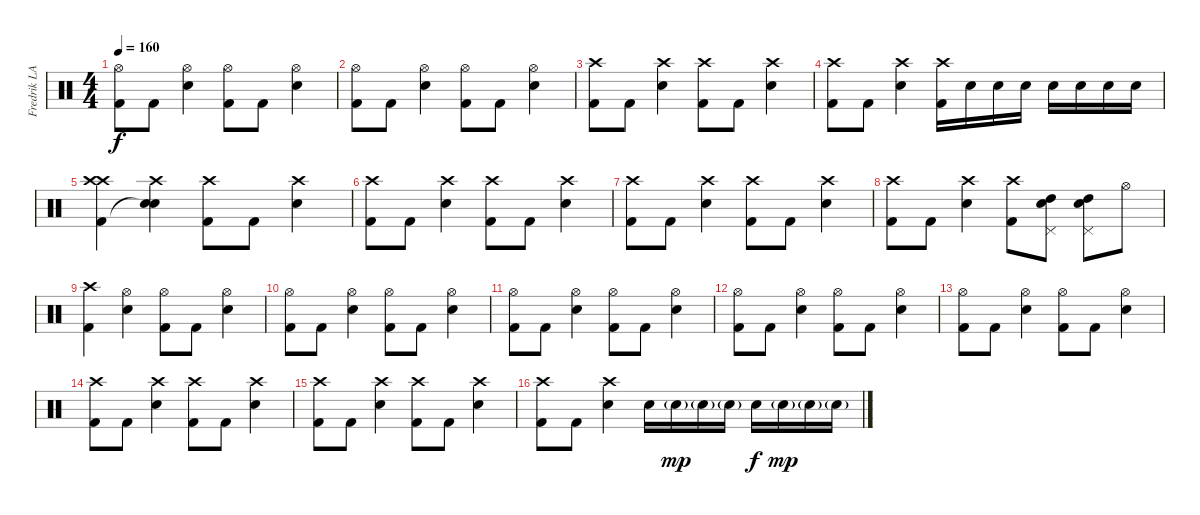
\track ("Fredrik LARZON" "Fredrik LA") {instrument percussion}
\staff {score}
\articulation defaults
\ts (4 4)
\tempo 160
\clef neutral
\ks c
("Hi-Hat (open)" "Kick (hit) 2").8{dy f} "Kick (hit) 2".8 ("Hi-Hat (open)" "Electric Snare (hit)").4 ("Hi-Hat (open)" "Kick (hit) 2").8 "Kick (hit) 2".8 ("Hi-Hat (open)" "Electric Snare (hit)").4 |
("Hi-Hat (open)" "Kick (hit) 2").8 "Kick (hit) 2".8 ("Hi-Hat (open)" "Electric Snare (hit)").4 ("Hi-Hat (open)" "Kick (hit) 2").8 "Kick (hit) 2".8 ("Hi-Hat (open)" "Electric Snare (hit)").4 |
("Crash high (hit)" "Kick (hit) 2").8 "Kick (hit) 2".8 ("Crash high (hit)" "Electric Snare (hit)").4 ("Crash high (hit)" "Kick (hit) 2").8 "Kick (hit) 2".8 ("Crash high (hit)" "Electric Snare (hit)").4 |
("Crash high (hit)" "Kick (hit) 2").8 "Kick (hit) 2".8 ("Crash high (hit)" "Electric Snare (hit)").4 ("Crash high (hit)" "Kick (hit) 2").16 "Electric Snare (hit)".16 "Electric Snare (hit)".16 "Electric Snare (hit)".16 "Electric Snare (hit)".16 "Electric Snare (hit)".16 "Electric Snare (hit)".16 "Electric Snare (hit)".16 |
("Crash high (hit)" "Crash high (hit)" "Kick (hit) 2").4 ("Crash high (hit)" "Electric Snare (hit)" "Snare (hit)"{t}).4 ("Crash high (hit)" "Kick (hit) 2").8 "Kick (hit) 2".8 ("Crash high (hit)" "Electric Snare (hit)").4 |
("Crash high (hit)" "Kick (hit) 2").8 "Kick (hit) 2".8 ("Crash high (hit)" "Electric Snare (hit)").4 ("Crash high (hit)" "Kick (hit) 2").8 "Kick (hit) 2".8 ("Crash high (hit)" "Electric Snare (hit)").4 |
("Crash high (hit)" "Kick (hit) 2").8 "Kick (hit) 2".8 ("Crash high (hit)" "Electric Snare (hit)").4 ("Crash high (hit)" "Kick (hit) 2").8 "Kick (hit) 2".8 ("Crash high (hit)" "Electric Snare (hit)").4 |
("Crash high (hit)" "Kick (hit) 2").8 "Kick (hit) 2".8 ("Crash high (hit)" "Electric Snare (hit)").4 ("Crash high (hit)" "Kick (hit) 2").8 ("Pedal Hi-Hat (hit)" "Electric Snare (hit)" "High Tom (hit)").8 ("Pedal Hi-Hat (hit)" "Electric Snare (hit)" "High Tom (hit)").8 "Hi-Hat (open)".8 |
("Crash high (hit)" "Kick (hit) 2").4 ("Hi-Hat (open)" "Electric Snare (hit)").4 ("Hi-Hat (open)" "Kick (hit) 2").8 "Kick (hit) 2".8 ("Hi-Hat (open)" "Electric Snare (hit)").4 |
("Hi-Hat (open)" "Kick (hit) 2").8 "Kick (hit) 2".8 ("Hi-Hat (open)" "Electric Snare (hit)").4 ("Hi-Hat (open)" "Kick (hit) 2").8 "Kick (hit) 2".8 ("Hi-Hat (open)" "Electric Snare (hit)").4 |
("Hi-Hat (open)" "Kick (hit) 2").8 "Kick (hit) 2".8 ("Hi-Hat (open)" "Electric Snare (hit)").4 ("Hi-Hat (open)" "Kick (hit) 2").8 "Kick (hit) 2".8 ("Hi-Hat (open)" "Electric Snare (hit)").4 |
("Hi-Hat (open)" "Kick (hit) 2").8 "Kick (hit) 2".8 ("Hi-Hat (open)" "Electric Snare (hit)").4 ("Hi-Hat (open)" "Kick (hit) 2").8 "Kick (hit) 2".8 ("Hi-Hat (open)" "Electric Snare (hit)").4 |
("Hi-Hat (open)" "Kick (hit) 2").8 "Kick (hit) 2".8 ("Hi-Hat (open)" "Electric Snare (hit)").4 ("Hi-Hat (open)" "Kick (hit) 2").8 "Kick (hit) 2".8 ("Hi-Hat (open)" "Electric Snare (hit)").4 |
("Crash high (hit)" "Kick (hit) 2").8 "Kick (hit) 2".8 ("Crash high (hit)" "Electric Snare (hit)").4 ("Crash high (hit)" "Kick (hit) 2").8 "Kick (hit) 2".8 ("Crash high (hit)" "Electric Snare (hit)").4 |
("Crash high (hit)" "Kick (hit) 2").8 "Kick (hit) 2".8 ("Crash high (hit)" "Electric Snare (hit)").4 ("Crash high (hit)" "Kick (hit) 2").8 "Kick (hit) 2".8 ("Crash high (hit)" "Electric Snare (hit)").4 |
("Crash high (hit)" "Kick (hit) 2").8 "Kick (hit) 2".8 ("Crash high (hit)" "Electric Snare (hit)").4 "Electric Snare (hit)".16 "Electric Snare (hit)"{g}.16{dy mp} "Electric Snare (hit)"{g}.16 "Electric Snare (hit)"{g}.16 "Electric Snare (hit)".16{dy f} "Electric Snare (hit)"{g}.16{dy mp} "Electric Snare (hit)"{g}.16 "Electric Snare (hit)"{g}.16
